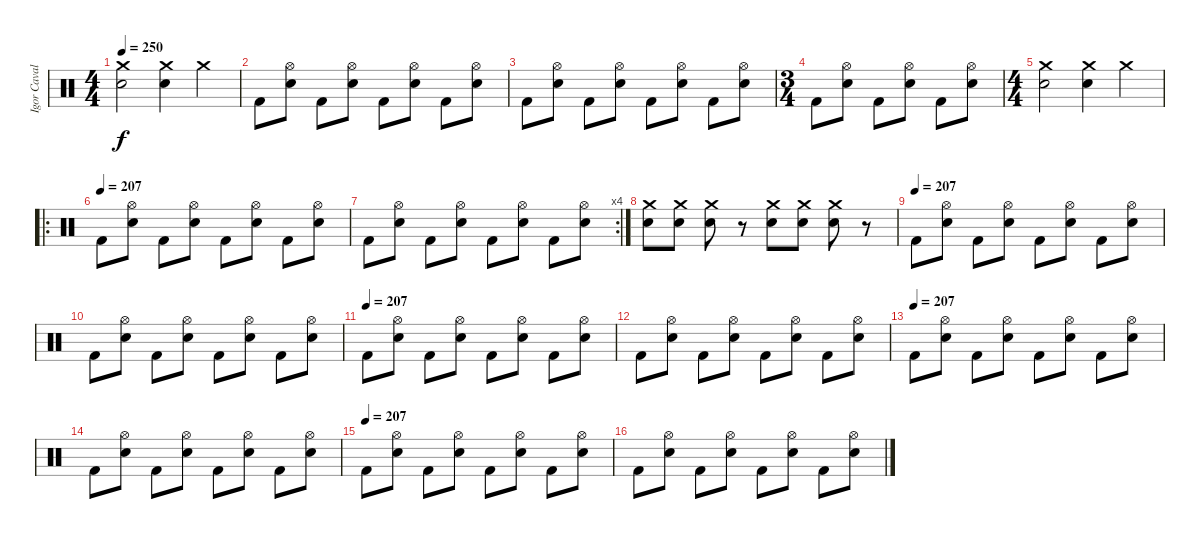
\track ("Igor Cavalera" "Igor Caval") {solo instrument percussion}
\staff {score}
\articulation defaults
\ts (4 4)
\tempo 250
\clef neutral
\ks c
("Crash medium (hit)" "Electric Snare (hit)").2{dy f} ("Crash medium (hit)" "Electric Snare (hit)").4 "Crash medium (hit)".4 |
"Kick (hit) 2".8 ("Electric Snare (hit)" "Hi-Hat (open)").8 "Kick (hit) 2".8 ("Electric Snare (hit)" "Hi-Hat (open)").8 "Kick (hit) 2".8 ("Electric Snare (hit)" "Hi-Hat (open)").8 "Kick (hit) 2".8 ("Electric Snare (hit)" "Hi-Hat (open)").8 |
"Kick (hit) 2".8 ("Electric Snare (hit)" "Hi-Hat (open)").8 "Kick (hit) 2".8 ("Electric Snare (hit)" "Hi-Hat (open)").8 "Kick (hit) 2".8 ("Electric Snare (hit)" "Hi-Hat (open)").8 "Kick (hit) 2".8 ("Electric Snare (hit)" "Hi-Hat (open)").8 |
\ts (3 4)
"Kick (hit) 2".8 ("Electric Snare (hit)" "Hi-Hat (open)").8 "Kick (hit) 2".8 ("Electric Snare (hit)" "Hi-Hat (open)").8 "Kick (hit) 2".8 ("Electric Snare (hit)" "Hi-Hat (open)").8 |
\ts (4 4)
("Crash medium (hit)" "Electric Snare (hit)").2 ("Crash medium (hit)" "Electric Snare (hit)").4 "Crash medium (hit)".4 |
\ro
\tempo (207)
"Kick (hit) 2".8 ("Electric Snare (hit)" "Hi-Hat (open)").8 "Kick (hit) 2".8 ("Electric Snare (hit)" "Hi-Hat (open)").8 "Kick (hit) 2".8 ("Electric Snare (hit)" "Hi-Hat (open)").8 "Kick (hit) 2".8 ("Electric Snare (hit)" "Hi-Hat (open)").8 |
\rc 4 "Kick (hit) 2".8
("Electric Snare (hit)" "Hi-Hat (open)").8 "Kick (hit) 2".8 ("Electric Snare (hit)" "Hi-Hat (open)").8 "Kick (hit) 2".8 ("Electric Snare (hit)" "Hi-Hat (open)").8 "Kick (hit) 2".8 ("Electric Snare (hit)" "Hi-Hat (open)").8 |
("Electric Snare (hit)" "Crash medium (hit)").8 ("Electric Snare (hit)" "Crash medium (hit)").8 ("Electric Snare (hit)" "Crash medium (hit)").8 r.8 ("Electric Snare (hit)" "Crash medium (hit)").8 ("Electric Snare (hit)" "Crash medium (hit)").8 ("Electric Snare (hit)" "Crash medium (hit)").8 r.8 |
\tempo (207)
"Kick (hit) 2".8 ("Electric Snare (hit)" "Hi-Hat (open)").8 "Kick (hit) 2".8 ("Electric Snare (hit)" "Hi-Hat (open)").8 "Kick (hit) 2".8 ("Electric Snare (hit)" "Hi-Hat (open)").8 "Kick (hit) 2".8 ("Electric Snare (hit)" "Hi-Hat (open)").8 |
"Kick (hit) 2".8 ("Electric Snare (hit)" "Hi-Hat (open)").8 "Kick (hit) 2".8 ("Electric Snare (hit)" "Hi-Hat (open)").8 "Kick (hit) 2".8 ("Electric Snare (hit)" "Hi-Hat (open)").8 "Kick (hit) 2".8 ("Electric Snare (hit)" "Hi-Hat (open)").8 |
\tempo (207)
"Kick (hit) 2".8 ("Electric Snare (hit)" "Hi-Hat (open)").8 "Kick (hit) 2".8 ("Electric Snare (hit)" "Hi-Hat (open)").8 "Kick (hit) 2".8 ("Electric Snare (hit)" "Hi-Hat (open)").8 "Kick (hit) 2".8 ("Electric Snare (hit)" "Hi-Hat (open)").8 |
"Kick (hit) 2".8 ("Electric Snare (hit)" "Hi-Hat (open)").8 "Kick (hit) 2".8 ("Electric Snare (hit)" "Hi-Hat (open)").8 "Kick (hit) 2".8 ("Electric Snare (hit)" "Hi-Hat (open)").8 "Kick (hit) 2".8 ("Electric Snare (hit)" "Hi-Hat (open)").8 |
\tempo (207)
"Kick (hit) 2".8 ("Electric Snare (hit)" "Hi-Hat (open)").8 "Kick (hit) 2".8 ("Electric Snare (hit)" "Hi-Hat (open)").8 "Kick (hit) 2".8 ("Electric Snare (hit)" "Hi-Hat (open)").8 "Kick (hit) 2".8 ("Electric Snare (hit)" "Hi-Hat (open)").8 |
"Kick (hit) 2".8 ("Electric Snare (hit)" "Hi-Hat (open)").8 "Kick (hit) 2".8 ("Electric Snare (hit)" "Hi-Hat (open)").8 "Kick (hit) 2".8 ("Electric Snare (hit)" "Hi-Hat (open)").8 "Kick (hit) 2".8 ("Electric Snare (hit)" "Hi-Hat (open)").8 |
\tempo (207)
"Kick (hit) 2".8 ("Electric Snare (hit)" "Hi-Hat (open)").8 "Kick (hit) 2".8 ("Electric Snare (hit)" "Hi-Hat (open)").8 "Kick (hit) 2".8 ("Electric Snare (hit)" "Hi-Hat (open)").8 "Kick (hit) 2".8 ("Electric Snare (hit)" "Hi-Hat (open)").8 |
"Kick (hit) 2".8 ("Electric Snare (hit)" "Hi-Hat (open)").8 "Kick (hit) 2".8 ("Electric Snare (hit)" "Hi-Hat (open)").8 "Kick (hit) 2".8 ("Electric Snare (hit)" "Hi-Hat (open)").8 "Kick (hit) 2".8 ("Electric Snare (hit)" "Hi-Hat (open)").8
